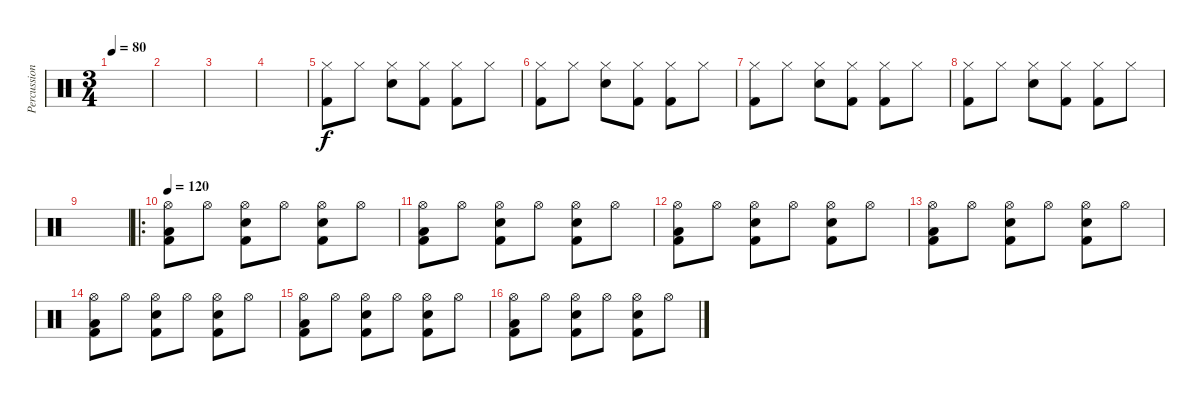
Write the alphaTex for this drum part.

\track ("Percussions" "Percussion") {instrument percussion}
\staff {score}
\articulation defaults
\ts (3 4)
\tempo 80
\clef neutral
\ks c
|
|
|
|
("Hi-Hat (closed)" "Kick (hit) 2").8 "Hi-Hat (closed)".8 ("Hi-Hat (closed)" "Snare (hit) 2").8 ("Hi-Hat (closed)" "Kick (hit) 2").8 ("Hi-Hat (closed)" "Kick (hit) 2").8 "Hi-Hat (closed)".8 |
("Hi-Hat (closed)" "Kick (hit) 2").8 "Hi-Hat (closed)".8 ("Hi-Hat (closed)" "Snare (hit) 2").8 ("Hi-Hat (closed)" "Kick (hit) 2").8 ("Hi-Hat (closed)" "Kick (hit) 2").8 "Hi-Hat (closed)".8 |
("Hi-Hat (closed)" "Kick (hit) 2").8 "Hi-Hat (closed)".8 ("Hi-Hat (closed)" "Snare (hit) 2").8 ("Hi-Hat (closed)" "Kick (hit) 2").8 ("Hi-Hat (closed)" "Kick (hit) 2").8 "Hi-Hat (closed)".8 |
("Hi-Hat (closed)" "Kick (hit) 2").8 "Hi-Hat (closed)".8 ("Hi-Hat (closed)" "Snare (hit) 2").8 ("Hi-Hat (closed)" "Kick (hit) 2").8 ("Hi-Hat (closed)" "Kick (hit) 2").8 "Hi-Hat (closed)".8 |
|
\ro
\tempo 120
("Hi-Hat (open)" "Low Tom (hit)" "Kick (hit) 2").8 "Hi-Hat (open)".8 ("Hi-Hat (open)" "Snare (hit) 2" "Kick (hit) 2").8 "Hi-Hat (open)".8 ("Hi-Hat (open)" "Snare (hit) 2" "Kick (hit) 2").8 "Hi-Hat (open)".8 |
("Hi-Hat (open)" "Low Tom (hit)" "Kick (hit) 2").8 "Hi-Hat (open)".8 ("Hi-Hat (open)" "Snare (hit) 2" "Kick (hit) 2").8 "Hi-Hat (open)".8 ("Hi-Hat (open)" "Snare (hit) 2" "Kick (hit) 2").8 "Hi-Hat (open)".8 |
("Hi-Hat (open)" "Low Tom (hit)" "Kick (hit) 2").8 "Hi-Hat (open)".8 ("Hi-Hat (open)" "Snare (hit) 2" "Kick (hit) 2").8 "Hi-Hat (open)".8 ("Hi-Hat (open)" "Snare (hit) 2" "Kick (hit) 2").8 "Hi-Hat (open)".8 |
("Hi-Hat (open)" "Low Tom (hit)" "Kick (hit) 2").8 "Hi-Hat (open)".8 ("Hi-Hat (open)" "Snare (hit) 2" "Kick (hit) 2").8 "Hi-Hat (open)".8 ("Hi-Hat (open)" "Snare (hit) 2" "Kick (hit) 2").8 "Hi-Hat (open)".8 |
("Hi-Hat (open)" "Low Tom (hit)" "Kick (hit) 2").8 "Hi-Hat (open)".8 ("Hi-Hat (open)" "Snare (hit) 2" "Kick (hit) 2").8 "Hi-Hat (open)".8 ("Hi-Hat (open)" "Snare (hit) 2" "Kick (hit) 2").8 "Hi-Hat (open)".8 |
("Hi-Hat (open)" "Low Tom (hit)" "Kick (hit) 2").8 "Hi-Hat (open)".8 ("Hi-Hat (open)" "Snare (hit) 2" "Kick (hit) 2").8 "Hi-Hat (open)".8 ("Hi-Hat (open)" "Snare (hit) 2" "Kick (hit) 2").8 "Hi-Hat (open)".8 |
("Hi-Hat (open)" "Low Tom (hit)" "Kick (hit) 2").8 "Hi-Hat (open)".8 ("Hi-Hat (open)" "Snare (hit) 2" "Kick (hit) 2").8 "Hi-Hat (open)".8 ("Hi-Hat (open)" "Snare (hit) 2" "Kick (hit) 2").8 "Hi-Hat (open)".8
